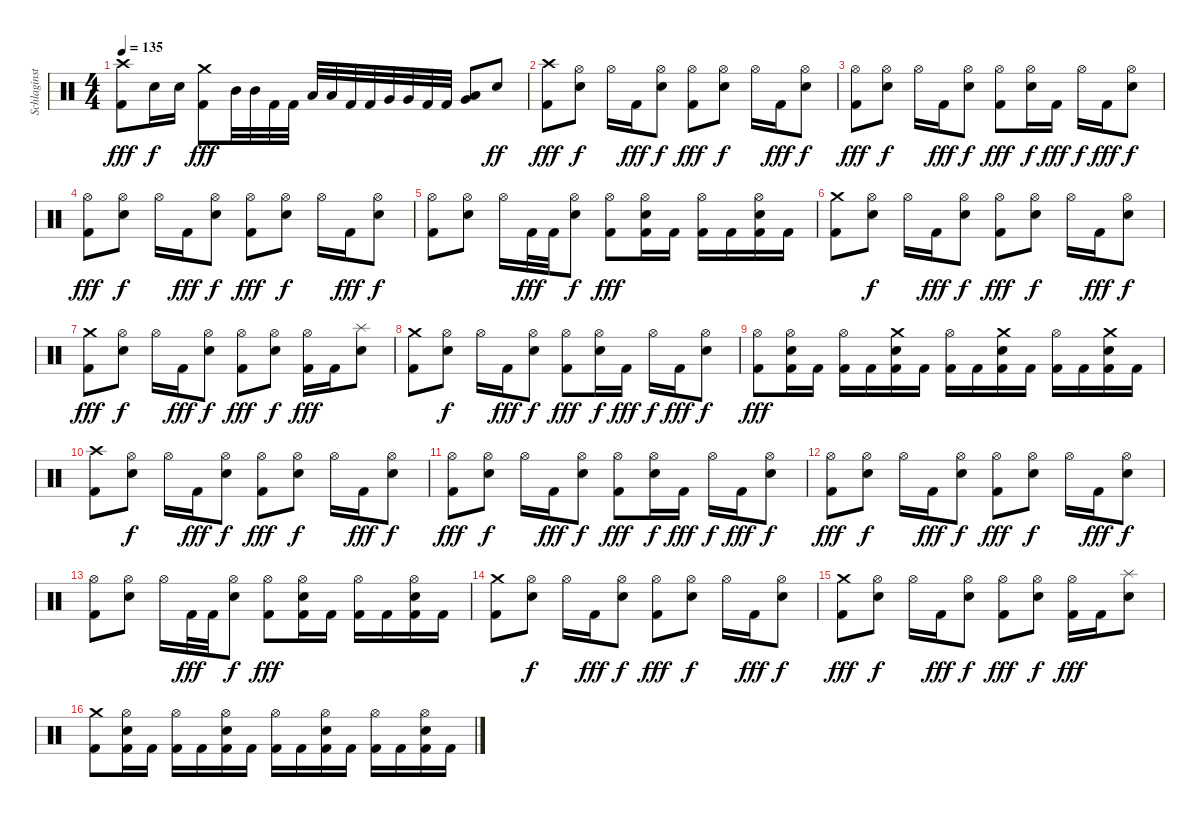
\track ("Schlaginstrumente - Auswahl" "Schlaginst") {instrument percussion}
\staff {score}
\articulation defaults
\ts (4 4)
\tempo 135
\clef neutral
\ks c
("Crash high (hit)" "Kick (hit) 2").8{dy fff} "Snare (hit) 2".16{dy f} "Snare (hit) 2".16 ("Crash medium (hit)" "Kick (hit) 2").8{dy fff} "Mid Tom (hit)".32 "Mid Tom (hit)".32 "Kick (hit) 2".32 "Kick (hit) 2".32 "Low Tom (hit)".32 "Low Tom (hit)".32 "Kick (hit) 2".32 "Kick (hit) 2".32 "Very Low Tom (hit)".32 "Very Low Tom (hit)".32 "Kick (hit) 2".32 "Kick (hit) 2".32 ("Very Low Tom (hit)" "Low Floor Tom (hit)").8 "Snare (hit) 2".8{dy ff} |
("Crash high (hit)" "Kick (hit) 2").8{dy fff} ("Hi-Hat (open)" "Snare (hit) 2").8{dy f} "Hi-Hat (open)".16 "Kick (hit) 2".16{dy fff} ("Hi-Hat (open)" "Snare (hit) 2").8{dy f} ("Hi-Hat (open)" "Kick (hit) 2").8{dy fff} ("Hi-Hat (open)" "Snare (hit) 2").8{dy f} "Hi-Hat (open)".16 "Kick (hit) 2".16{dy fff} ("Hi-Hat (open)" "Snare (hit) 2").8{dy f} |
("Hi-Hat (open)" "Kick (hit) 2").8{dy fff} ("Hi-Hat (open)" "Snare (hit) 2").8{dy f} "Hi-Hat (open)".16 "Kick (hit) 2".16{dy fff} ("Hi-Hat (open)" "Snare (hit) 2").8{dy f} ("Hi-Hat (open)" "Kick (hit) 2").8{dy fff} ("Hi-Hat (open)" "Snare (hit) 2").16{dy f} "Kick (hit) 2".16{dy fff} "Hi-Hat (open)".16{dy f} "Kick (hit) 2".16{dy fff} ("Hi-Hat (open)" "Snare (hit) 2").8{dy f} |
("Hi-Hat (open)" "Kick (hit) 2").8{dy fff} ("Hi-Hat (open)" "Snare (hit) 2").8{dy f} "Hi-Hat (open)".16 "Kick (hit) 2".16{dy fff} ("Hi-Hat (open)" "Snare (hit) 2").8{dy f} ("Hi-Hat (open)" "Kick (hit) 2").8{dy fff} ("Hi-Hat (open)" "Snare (hit) 2").8{dy f} "Hi-Hat (open)".16 "Kick (hit) 2".16{dy fff} ("Hi-Hat (open)" "Snare (hit) 2").8{dy f} |
("Hi-Hat (open)" "Kick (hit) 2").8 ("Hi-Hat (open)" "Snare (hit) 2").8 "Hi-Hat (open)".16 "Kick (hit) 2".32{dy fff} "Kick (hit) 2".32 ("Hi-Hat (open)" "Snare (hit) 2").8{dy f} ("Hi-Hat (open)" "Kick (hit) 2").8{dy fff} ("Hi-Hat (open)" "Snare (hit) 2" "Kick (hit) 2").16 "Kick (hit) 2".16 ("Hi-Hat (open)" "Kick (hit) 2").16 "Kick (hit) 2".16 ("Hi-Hat (open)" "Snare (hit) 2" "Kick (hit) 2").16 "Kick (hit) 2".16 |
("Crash medium (hit)" "Kick (hit) 2").8 ("Hi-Hat (open)" "Snare (hit) 2").8{dy f} "Hi-Hat (open)".16 "Kick (hit) 2".16{dy fff} ("Hi-Hat (open)" "Snare (hit) 2").8{dy f} ("Hi-Hat (open)" "Kick (hit) 2").8{dy fff} ("Hi-Hat (open)" "Snare (hit) 2").8{dy f} "Hi-Hat (open)".16 "Kick (hit) 2".16{dy fff} ("Hi-Hat (open)" "Snare (hit) 2").8{dy f} |
("Crash medium (hit)" "Kick (hit) 2").8{dy fff} ("Hi-Hat (open)" "Snare (hit) 2").8{dy f} "Hi-Hat (open)".16 "Kick (hit) 2".16{dy fff} ("Hi-Hat (open)" "Snare (hit) 2").8{dy f} ("Hi-Hat (open)" "Kick (hit) 2").8{dy fff} ("Hi-Hat (open)" "Snare (hit) 2").8{dy f} ("Hi-Hat (open)" "Kick (hit) 2").16{dy fff} "Kick (hit) 2".16 ("Splash (hit)" "Snare (hit) 2").8 |
("Crash medium (hit)" "Kick (hit) 2").8 ("Hi-Hat (open)" "Snare (hit) 2").8{dy f} "Hi-Hat (open)".16 "Kick (hit) 2".16{dy fff} ("Hi-Hat (open)" "Snare (hit) 2").8{dy f} ("Hi-Hat (open)" "Kick (hit) 2").8{dy fff} ("Hi-Hat (open)" "Snare (hit) 2").16{dy f} "Kick (hit) 2".16{dy fff} "Hi-Hat (open)".16{dy f} "Kick (hit) 2".16{dy fff} ("Hi-Hat (open)" "Snare (hit) 2").8{dy f} |
("Hi-Hat (open)" "Kick (hit) 2").8{dy fff} ("Hi-Hat (open)" "Snare (hit) 2" "Kick (hit) 2").16 "Kick (hit) 2".16 ("Hi-Hat (open)" "Kick (hit) 2").16 "Kick (hit) 2".16 ("Crash medium (hit)" "Snare (hit) 2" "Kick (hit) 2").16 "Kick (hit) 2".16 ("Hi-Hat (open)" "Kick (hit) 2").16 "Kick (hit) 2".16 ("Crash medium (hit)" "Snare (hit) 2" "Kick (hit) 2").16 "Kick (hit) 2".16 ("Hi-Hat (open)" "Kick (hit) 2").16 "Kick (hit) 2".16 ("Crash medium (hit)" "Snare (hit) 2" "Kick (hit) 2").16 "Kick (hit) 2".16 |
("Crash high (hit)" "Kick (hit) 2").8 ("Hi-Hat (open)" "Snare (hit) 2").8{dy f} "Hi-Hat (open)".16 "Kick (hit) 2".16{dy fff} ("Hi-Hat (open)" "Snare (hit) 2").8{dy f} ("Hi-Hat (open)" "Kick (hit) 2").8{dy fff} ("Hi-Hat (open)" "Snare (hit) 2").8{dy f} "Hi-Hat (open)".16 "Kick (hit) 2".16{dy fff} ("Hi-Hat (open)" "Snare (hit) 2").8{dy f} |
("Hi-Hat (open)" "Kick (hit) 2").8{dy fff} ("Hi-Hat (open)" "Snare (hit) 2").8{dy f} "Hi-Hat (open)".16 "Kick (hit) 2".16{dy fff} ("Hi-Hat (open)" "Snare (hit) 2").8{dy f} ("Hi-Hat (open)" "Kick (hit) 2").8{dy fff} ("Hi-Hat (open)" "Snare (hit) 2").16{dy f} "Kick (hit) 2".16{dy fff} "Hi-Hat (open)".16{dy f} "Kick (hit) 2".16{dy fff} ("Hi-Hat (open)" "Snare (hit) 2").8{dy f} |
("Hi-Hat (open)" "Kick (hit) 2").8{dy fff} ("Hi-Hat (open)" "Snare (hit) 2").8{dy f} "Hi-Hat (open)".16 "Kick (hit) 2".16{dy fff} ("Hi-Hat (open)" "Snare (hit) 2").8{dy f} ("Hi-Hat (open)" "Kick (hit) 2").8{dy fff} ("Hi-Hat (open)" "Snare (hit) 2").8{dy f} "Hi-Hat (open)".16 "Kick (hit) 2".16{dy fff} ("Hi-Hat (open)" "Snare (hit) 2").8{dy f} |
("Hi-Hat (open)" "Kick (hit) 2").8 ("Hi-Hat (open)" "Snare (hit) 2").8 "Hi-Hat (open)".16 "Kick (hit) 2".32{dy fff} "Kick (hit) 2".32 ("Hi-Hat (open)" "Snare (hit) 2").8{dy f} ("Hi-Hat (open)" "Kick (hit) 2").8{dy fff} ("Hi-Hat (open)" "Snare (hit) 2" "Kick (hit) 2").16 "Kick (hit) 2".16 ("Hi-Hat (open)" "Kick (hit) 2").16 "Kick (hit) 2".16 ("Hi-Hat (open)" "Snare (hit) 2" "Kick (hit) 2").16 "Kick (hit) 2".16 |
("Crash medium (hit)" "Kick (hit) 2").8 ("Hi-Hat (open)" "Snare (hit) 2").8{dy f} "Hi-Hat (open)".16 "Kick (hit) 2".16{dy fff} ("Hi-Hat (open)" "Snare (hit) 2").8{dy f} ("Hi-Hat (open)" "Kick (hit) 2").8{dy fff} ("Hi-Hat (open)" "Snare (hit) 2").8{dy f} "Hi-Hat (open)".16 "Kick (hit) 2".16{dy fff} ("Hi-Hat (open)" "Snare (hit) 2").8{dy f} |
("Crash medium (hit)" "Kick (hit) 2").8{dy fff} ("Hi-Hat (open)" "Snare (hit) 2").8{dy f} "Hi-Hat (open)".16 "Kick (hit) 2".16{dy fff} ("Hi-Hat (open)" "Snare (hit) 2").8{dy f} ("Hi-Hat (open)" "Kick (hit) 2").8{dy fff} ("Hi-Hat (open)" "Snare (hit) 2").8{dy f} ("Hi-Hat (open)" "Kick (hit) 2").16{dy fff} "Kick (hit) 2".16 ("Splash (hit)" "Snare (hit) 2").8 |
("Crash medium (hit)" "Kick (hit) 2").8 ("Hi-Hat (open)" "Snare (hit) 2" "Kick (hit) 2").16 "Kick (hit) 2".16 ("Hi-Hat (open)" "Kick (hit) 2").16 "Kick (hit) 2".16 ("Hi-Hat (open)" "Snare (hit) 2" "Kick (hit) 2").16 "Kick (hit) 2".16 ("Hi-Hat (open)" "Kick (hit) 2").16 "Kick (hit) 2".16 ("Hi-Hat (open)" "Snare (hit) 2" "Kick (hit) 2").16 "Kick (hit) 2".16 ("Hi-Hat (open)" "Kick (hit) 2").16 "Kick (hit) 2".16 ("Hi-Hat (open)" "Snare (hit) 2" "Kick (hit) 2").16 "Kick (hit) 2".16
